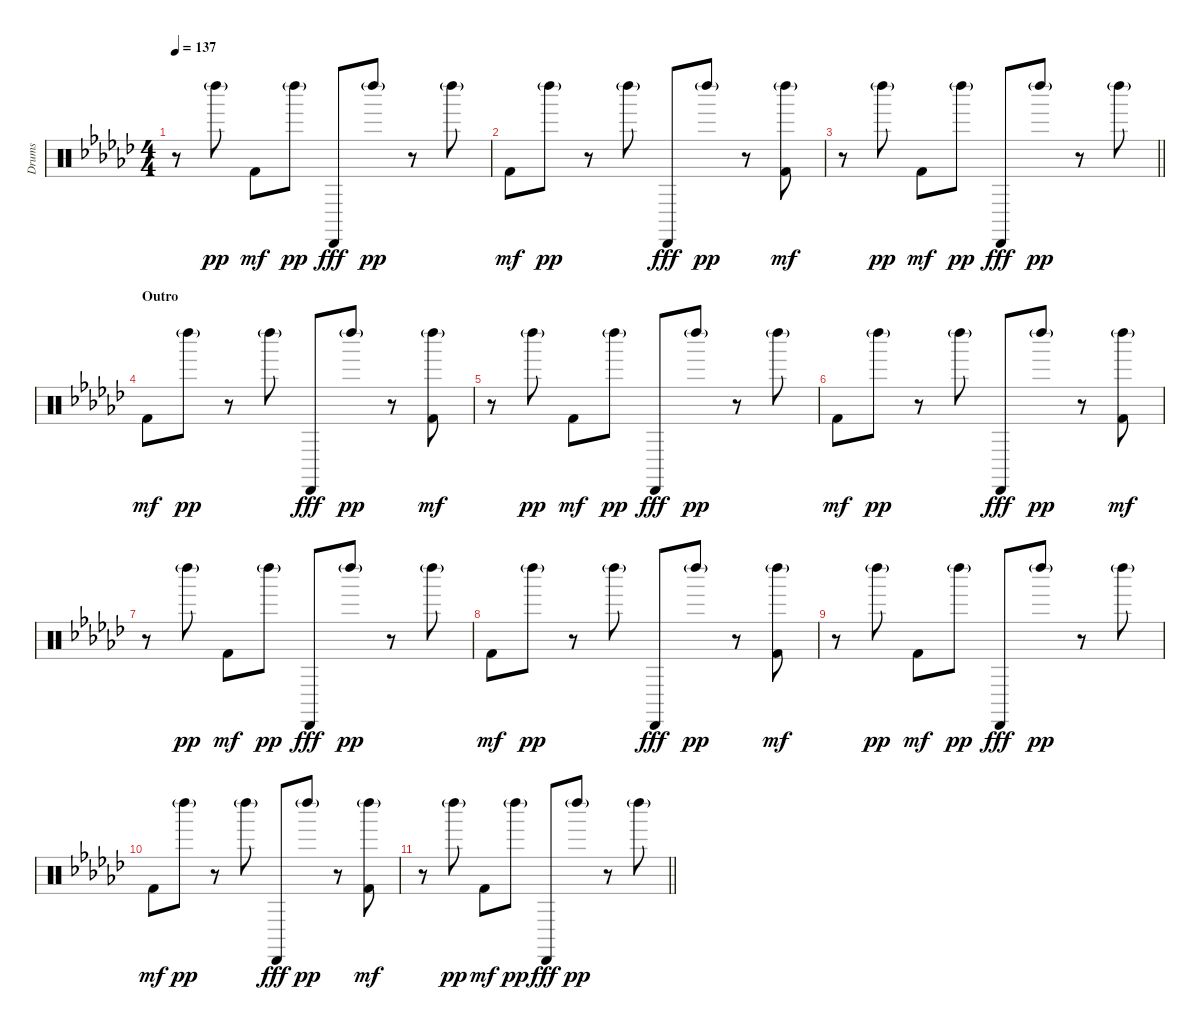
\track ("Drums" "Drums") {instrument percussion}
\staff
\articulation defaults
\ts (4 4)
\tempo 137
\clef neutral
\ks ebminor
r.8{dy mf} "Left Maraca (hit)"{g}.8{dy pp} "Kick (hit) 2".8{dy mf} "Left Maraca (hit)"{g}.8{dy pp} "Cabasa (hit)".8{dy fff} "Left Maraca (hit)"{g}.8{dy pp} r.8 "Left Maraca (hit)"{g}.8 |
"Kick (hit) 2".8{dy mf} "Left Maraca (hit)"{g}.8{dy pp} r.8 "Left Maraca (hit)"{g}.8 "Cabasa (hit)".8{dy fff} "Left Maraca (hit)"{g}.8{dy pp} r.8 ("Left Maraca (hit)"{g} "Kick (hit) 2").8{dy mf} |
\barLineRight lightlight
r.8 "Left Maraca (hit)"{g}.8{dy pp} "Kick (hit) 2".8{dy mf} "Left Maraca (hit)"{g}.8{dy pp} "Cabasa (hit)".8{dy fff} "Left Maraca (hit)"{g}.8{dy pp} r.8 "Left Maraca (hit)"{g}.8 |
\section ("" "Outro")
"Kick (hit) 2".8{dy mf volume 3} "Left Maraca (hit)"{g}.8{dy pp} r.8 "Left Maraca (hit)"{g}.8 "Cabasa (hit)".8{dy fff} "Left Maraca (hit)"{g}.8{dy pp} r.8 ("Left Maraca (hit)"{g} "Kick (hit) 2").8{dy mf} |
r.8 "Left Maraca (hit)"{g}.8{dy pp} "Kick (hit) 2".8{dy mf} "Left Maraca (hit)"{g}.8{dy pp} "Cabasa (hit)".8{dy fff} "Left Maraca (hit)"{g}.8{dy pp} r.8 "Left Maraca (hit)"{g}.8 |
"Kick (hit) 2".8{dy mf} "Left Maraca (hit)"{g}.8{dy pp} r.8 "Left Maraca (hit)"{g}.8 "Cabasa (hit)".8{dy fff} "Left Maraca (hit)"{g}.8{dy pp} r.8 ("Left Maraca (hit)"{g} "Kick (hit) 2").8{dy mf} |
r.8 "Left Maraca (hit)"{g}.8{dy pp} "Kick (hit) 2".8{dy mf} "Left Maraca (hit)"{g}.8{dy pp} "Cabasa (hit)".8{dy fff} "Left Maraca (hit)"{g}.8{dy pp} r.8 "Left Maraca (hit)"{g}.8 |
"Kick (hit) 2".8{dy mf volume 0} "Left Maraca (hit)"{g}.8{dy pp} r.8 "Left Maraca (hit)"{g}.8 "Cabasa (hit)".8{dy fff} "Left Maraca (hit)"{g}.8{dy pp} r.8 ("Left Maraca (hit)"{g} "Kick (hit) 2").8{dy mf} |
r.8 "Left Maraca (hit)"{g}.8{dy pp} "Kick (hit) 2".8{dy mf} "Left Maraca (hit)"{g}.8{dy pp} "Cabasa (hit)".8{dy fff} "Left Maraca (hit)"{g}.8{dy pp} r.8 "Left Maraca (hit)"{g}.8 |
"Kick (hit) 2".8{dy mf} "Left Maraca (hit)"{g}.8{dy pp} r.8 "Left Maraca (hit)"{g}.8 "Cabasa (hit)".8{dy fff} "Left Maraca (hit)"{g}.8{dy pp} r.8 ("Left Maraca (hit)"{g} "Kick (hit) 2").8{dy mf} |
\barLineRight lightlight
r.8 "Left Maraca (hit)"{g}.8{dy pp} "Kick (hit) 2".8{dy mf} "Left Maraca (hit)"{g}.8{dy pp} "Cabasa (hit)".8{dy fff} "Left Maraca (hit)"{g}.8{dy pp} r.8 "Left Maraca (hit)"{g}.8
